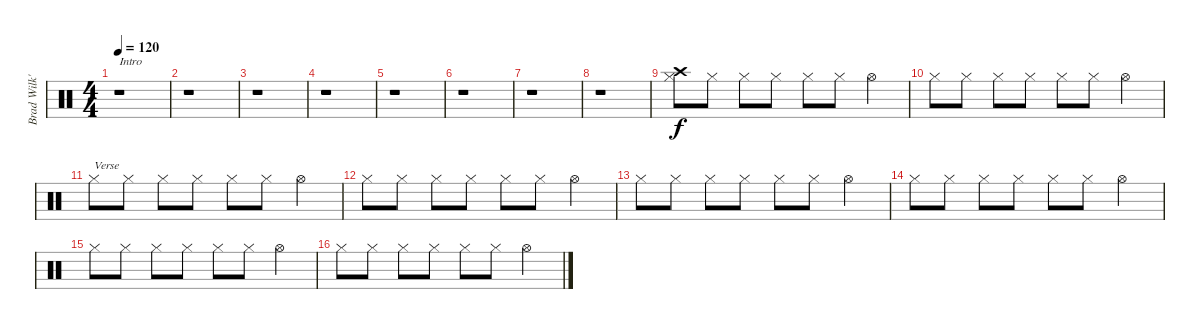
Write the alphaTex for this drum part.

\track ("Brad Wilk's Hi Hat" "Brad Wilk'") {instrument percussion}
\staff {score}
\articulation defaults
\ts (4 4)
\tempo 120
\clef neutral
\ks c
r.1{txt "Intro" dy f} |
r.1 |
r.1 |
r.1 |
r.1 |
r.1 |
r.1 |
r.1 |
("Hi-Hat (closed)" "Crash high (hit)").8 "Hi-Hat (closed)".8 "Hi-Hat (closed)".8 "Hi-Hat (closed)".8 "Hi-Hat (closed)".8 "Hi-Hat (closed)".8 "Hi-Hat (open)".4 |
"Hi-Hat (closed)".8 "Hi-Hat (closed)".8 "Hi-Hat (closed)".8 "Hi-Hat (closed)".8 "Hi-Hat (closed)".8 "Hi-Hat (closed)".8 "Hi-Hat (open)".4 |
"Hi-Hat (closed)".8{txt "Verse"} "Hi-Hat (closed)".8 "Hi-Hat (closed)".8 "Hi-Hat (closed)".8 "Hi-Hat (closed)".8 "Hi-Hat (closed)".8 "Hi-Hat (open)".4 |
"Hi-Hat (closed)".8 "Hi-Hat (closed)".8 "Hi-Hat (closed)".8 "Hi-Hat (closed)".8 "Hi-Hat (closed)".8 "Hi-Hat (closed)".8 "Hi-Hat (open)".4 |
"Hi-Hat (closed)".8 "Hi-Hat (closed)".8 "Hi-Hat (closed)".8 "Hi-Hat (closed)".8 "Hi-Hat (closed)".8 "Hi-Hat (closed)".8 "Hi-Hat (open)".4 |
"Hi-Hat (closed)".8 "Hi-Hat (closed)".8 "Hi-Hat (closed)".8 "Hi-Hat (closed)".8 "Hi-Hat (closed)".8 "Hi-Hat (closed)".8 "Hi-Hat (open)".4 |
"Hi-Hat (closed)".8 "Hi-Hat (closed)".8 "Hi-Hat (closed)".8 "Hi-Hat (closed)".8 "Hi-Hat (closed)".8 "Hi-Hat (closed)".8 "Hi-Hat (open)".4 |
"Hi-Hat (closed)".8 "Hi-Hat (closed)".8 "Hi-Hat (closed)".8 "Hi-Hat (closed)".8 "Hi-Hat (closed)".8 "Hi-Hat (closed)".8 "Hi-Hat (open)".4
